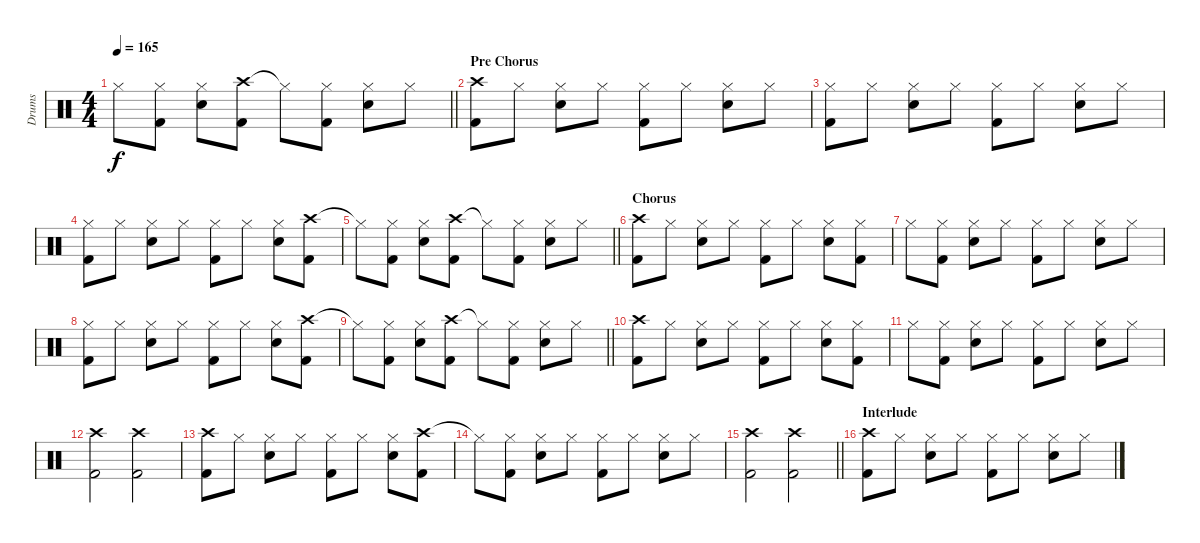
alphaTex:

\track ("Drums" "Drums") {instrument percussion}
\staff {score}
\articulation defaults
\ts (4 4)
\tempo 165
\clef neutral
\barLineRight lightlight
\ks c "Hi-Hat (closed)"{t}.8{dy f}
("Hi-Hat (closed)" "Kick (hit) 2").8 ("Hi-Hat (closed)" "Snare (hit) 2").8 ("Crash high (hit)" "Kick (hit) 2").8 "Hi-Hat (closed)"{t}.8 ("Hi-Hat (closed)" "Kick (hit) 2").8 ("Hi-Hat (closed)" "Snare (hit) 2").8 "Hi-Hat (closed)".8 |
\section ("" "Pre Chorus")
("Crash high (hit)" "Kick (hit) 2").8 "Hi-Hat (closed)".8 ("Hi-Hat (closed)" "Snare (hit) 2").8 "Hi-Hat (closed)".8 ("Hi-Hat (closed)" "Kick (hit) 2").8 "Hi-Hat (closed)".8 ("Hi-Hat (closed)" "Snare (hit) 2").8 "Hi-Hat (closed)".8 |
("Hi-Hat (closed)" "Kick (hit) 2").8 "Hi-Hat (closed)".8 ("Hi-Hat (closed)" "Snare (hit) 2").8 "Hi-Hat (closed)".8 ("Hi-Hat (closed)" "Kick (hit) 2").8 "Hi-Hat (closed)".8 ("Hi-Hat (closed)" "Snare (hit) 2").8 "Hi-Hat (closed)".8 |
("Hi-Hat (closed)" "Kick (hit) 2").8 "Hi-Hat (closed)".8 ("Hi-Hat (closed)" "Snare (hit) 2").8 "Hi-Hat (closed)".8 ("Hi-Hat (closed)" "Kick (hit) 2").8 "Hi-Hat (closed)".8 ("Hi-Hat (closed)" "Snare (hit) 2").8 ("Crash high (hit)" "Kick (hit) 2").8 |
\barLineRight lightlight "Hi-Hat (closed)"{t}.8
("Hi-Hat (closed)" "Kick (hit) 2").8 ("Hi-Hat (closed)" "Snare (hit) 2").8 ("Crash high (hit)" "Kick (hit) 2").8 "Hi-Hat (closed)"{t}.8 ("Hi-Hat (closed)" "Kick (hit) 2").8 ("Hi-Hat (closed)" "Snare (hit) 2").8 "Hi-Hat (closed)".8 |
\section ("" "Chorus")
("Crash high (hit)" "Kick (hit) 2").8 "Hi-Hat (closed)".8 ("Hi-Hat (closed)" "Snare (hit) 2").8 "Hi-Hat (closed)".8 ("Hi-Hat (closed)" "Kick (hit) 2").8 "Hi-Hat (closed)".8 ("Hi-Hat (closed)" "Snare (hit) 2").8 ("Hi-Hat (closed)" "Kick (hit) 2").8 |
"Hi-Hat (closed)".8 ("Hi-Hat (closed)" "Kick (hit) 2").8 ("Hi-Hat (closed)" "Snare (hit) 2").8 "Hi-Hat (closed)".8 ("Hi-Hat (closed)" "Kick (hit) 2").8 "Hi-Hat (closed)".8 ("Hi-Hat (closed)" "Snare (hit) 2").8 "Hi-Hat (closed)".8 |
("Hi-Hat (closed)" "Kick (hit) 2").8 "Hi-Hat (closed)".8 ("Hi-Hat (closed)" "Snare (hit) 2").8 "Hi-Hat (closed)".8 ("Hi-Hat (closed)" "Kick (hit) 2").8 "Hi-Hat (closed)".8 ("Hi-Hat (closed)" "Snare (hit) 2").8 ("Crash high (hit)" "Kick (hit) 2").8 |
\barLineRight lightlight "Hi-Hat (closed)"{t}.8
("Hi-Hat (closed)" "Kick (hit) 2").8 ("Hi-Hat (closed)" "Snare (hit) 2").8 ("Crash high (hit)" "Kick (hit) 2").8 "Hi-Hat (closed)"{t}.8 ("Hi-Hat (closed)" "Kick (hit) 2").8 ("Hi-Hat (closed)" "Snare (hit) 2").8 "Hi-Hat (closed)".8 |
("Crash high (hit)" "Kick (hit) 2").8 "Hi-Hat (closed)".8 ("Hi-Hat (closed)" "Snare (hit) 2").8 "Hi-Hat (closed)".8 ("Hi-Hat (closed)" "Kick (hit) 2").8 "Hi-Hat (closed)".8 ("Hi-Hat (closed)" "Snare (hit) 2").8 ("Hi-Hat (closed)" "Kick (hit) 2").8 |
"Hi-Hat (closed)".8 ("Hi-Hat (closed)" "Kick (hit) 2").8 ("Hi-Hat (closed)" "Snare (hit) 2").8 "Hi-Hat (closed)".8 ("Hi-Hat (closed)" "Kick (hit) 2").8 "Hi-Hat (closed)".8 ("Hi-Hat (closed)" "Snare (hit) 2").8 "Hi-Hat (closed)".8 |
("Crash high (hit)" "Kick (hit) 2").2 ("Crash high (hit)" "Kick (hit) 2").2 |
("Crash high (hit)" "Kick (hit) 2").8 "Hi-Hat (closed)".8 ("Hi-Hat (closed)" "Snare (hit) 2").8 "Hi-Hat (closed)".8 ("Hi-Hat (closed)" "Kick (hit) 2").8 "Hi-Hat (closed)".8 ("Hi-Hat (closed)" "Snare (hit) 2").8 ("Crash high (hit)" "Kick (hit) 2").8 |
"Hi-Hat (closed)"{t}.8 ("Hi-Hat (closed)" "Kick (hit) 2").8 ("Hi-Hat (closed)" "Snare (hit) 2").8 "Hi-Hat (closed)".8 ("Hi-Hat (closed)" "Kick (hit) 2").8 "Hi-Hat (closed)".8 ("Hi-Hat (closed)" "Snare (hit) 2").8 "Hi-Hat (closed)".8 |
\barLineRight lightlight
("Crash high (hit)" "Kick (hit) 2").2 ("Crash high (hit)" "Kick (hit) 2").2 |
\section ("" "Interlude")
("Crash high (hit)" "Kick (hit) 2").8 "Hi-Hat (closed)".8 ("Hi-Hat (closed)" "Snare (hit) 2").8 "Hi-Hat (closed)".8 ("Hi-Hat (closed)" "Kick (hit) 2").8 "Hi-Hat (closed)".8 ("Hi-Hat (closed)" "Snare (hit) 2").8 "Hi-Hat (closed)".8
